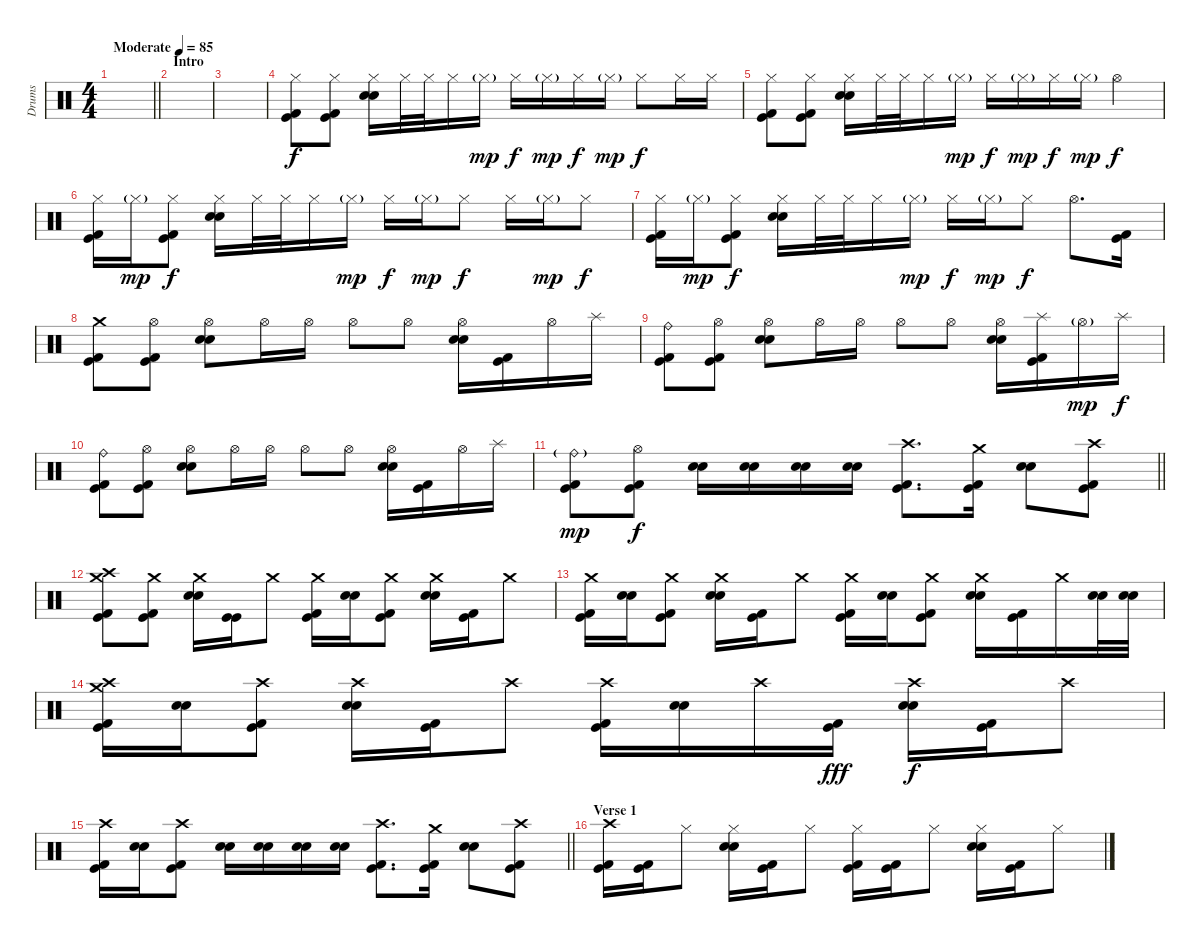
\track ("Drums" "Drums") {instrument percussion}
\staff {score}
\articulation defaults
\ts (4 4)
\tempo (85 "Moderate")
\clef neutral
\barLineRight lightlight
\ks c
|
\section ("" "Intro")
|
|
("Hi-Hat (closed)" "Kick (hit)" "Kick (hit) 2").8 ("Hi-Hat (closed)" "Kick (hit)" "Kick (hit) 2").8 ("Hi-Hat (closed)" "Electric Snare (hit)" "Snare (hit) 2").16 "Hi-Hat (closed)".32 "Hi-Hat (closed)".32 "Hi-Hat (closed)".16 "Hi-Hat (closed)"{g}.16{dy mp} "Hi-Hat (closed)".16{dy f} "Hi-Hat (closed)"{g}.16{dy mp} "Hi-Hat (closed)".16{dy f} "Hi-Hat (closed)"{g}.16{dy mp} "Hi-Hat (closed)".8{dy f} "Hi-Hat (closed)".16 "Hi-Hat (closed)".16 |
("Hi-Hat (closed)" "Kick (hit)" "Kick (hit) 2").8 ("Hi-Hat (closed)" "Kick (hit)" "Kick (hit) 2").8 ("Hi-Hat (closed)" "Electric Snare (hit)" "Snare (hit) 2").16 "Hi-Hat (closed)".32 "Hi-Hat (closed)".32 "Hi-Hat (closed)".16 "Hi-Hat (closed)"{g}.16{dy mp} "Hi-Hat (closed)".16{dy f} "Hi-Hat (closed)"{g}.16{dy mp} "Hi-Hat (closed)".16{dy f} "Hi-Hat (closed)"{g}.16{dy mp} "Hi-Hat (open)".4{dy f} |
("Hi-Hat (closed)" "Kick (hit)" "Kick (hit) 2").16 "Hi-Hat (closed)"{g}.16{dy mp} ("Hi-Hat (closed)" "Kick (hit)" "Kick (hit) 2").8{dy f} ("Hi-Hat (closed)" "Electric Snare (hit)" "Snare (hit) 2").16 "Hi-Hat (closed)".32 "Hi-Hat (closed)".32 "Hi-Hat (closed)".16 "Hi-Hat (closed)"{g}.16{dy mp} "Hi-Hat (closed)".16{dy f} "Hi-Hat (closed)"{g}.16{dy mp} "Hi-Hat (closed)".8{dy f} "Hi-Hat (closed)".16 "Hi-Hat (closed)"{g}.16{dy mp} "Hi-Hat (closed)".8{dy f} |
("Hi-Hat (closed)" "Kick (hit)" "Kick (hit) 2").16 "Hi-Hat (closed)"{g}.16{dy mp} ("Hi-Hat (closed)" "Kick (hit)" "Kick (hit) 2").8{dy f} ("Hi-Hat (closed)" "Electric Snare (hit)" "Snare (hit) 2").16 "Hi-Hat (closed)".32 "Hi-Hat (closed)".32 "Hi-Hat (closed)".16 "Hi-Hat (closed)"{g}.16{dy mp} "Hi-Hat (closed)".16{dy f} "Hi-Hat (closed)"{g}.16{dy mp} "Hi-Hat (closed)".8{dy f} "Hi-Hat (open)".8{d} ("Kick (hit)" "Kick (hit) 2").16 |
("Crash medium (hit)" "Kick (hit)" "Kick (hit) 2").8 ("Hi-Hat (open)" "Kick (hit)" "Kick (hit) 2").8 ("Hi-Hat (open)" "Electric Snare (hit)" "Snare (hit) 2").8 "Hi-Hat (open)".16 "Hi-Hat (open)".16 "Hi-Hat (open)".8 "Hi-Hat (open)".8 ("Hi-Hat (open)" "Electric Snare (hit)" "Snare (hit) 2").16 ("Kick (hit)" "Kick (hit) 2").16 "Hi-Hat (open)".16 "Splash (hit)".16 |
("Ride (bell)" "Kick (hit)" "Kick (hit) 2").8 ("Hi-Hat (open)" "Kick (hit)" "Kick (hit) 2").8 ("Hi-Hat (open)" "Electric Snare (hit)" "Snare (hit) 2").8 "Hi-Hat (open)".16 "Hi-Hat (open)".16 "Hi-Hat (open)".8 "Hi-Hat (open)".8 ("Hi-Hat (open)" "Electric Snare (hit)" "Snare (hit) 2").16 ("Splash (hit)" "Kick (hit)" "Kick (hit) 2").16 "Hi-Hat (open)"{g}.16{dy mp} "Splash (hit)".16{dy f} |
("Ride (bell)" "Kick (hit)" "Kick (hit) 2").8 ("Hi-Hat (open)" "Kick (hit)" "Kick (hit) 2").8 ("Hi-Hat (open)" "Electric Snare (hit)" "Snare (hit) 2").8 "Hi-Hat (open)".16 "Hi-Hat (open)".16 "Hi-Hat (open)".8 "Hi-Hat (open)".8 ("Hi-Hat (open)" "Electric Snare (hit)" "Snare (hit) 2").16 ("Kick (hit)" "Kick (hit) 2").16 "Hi-Hat (open)".16 "Splash (hit)".16 |
\barLineRight lightlight
("Ride (bell)"{g} "Kick (hit)" "Kick (hit) 2").8{dy mp} ("Hi-Hat (open)" "Kick (hit)" "Kick (hit) 2").8{dy f} ("Electric Snare (hit)" "Snare (hit) 2").16 ("Electric Snare (hit)" "Snare (hit) 2").16 ("Electric Snare (hit)" "Snare (hit) 2").16 ("Electric Snare (hit)" "Snare (hit) 2").16 ("Crash high (hit)" "Kick (hit)" "Kick (hit) 2").8{d} ("Crash medium (hit)" "Kick (hit)" "Kick (hit) 2").16 ("Electric Snare (hit)" "Snare (hit) 2").8 ("Crash high (hit)" "Kick (hit)" "Kick (hit) 2").8 |
\section ("" " ")
("Crash medium (hit)" "Crash high (hit)" "Kick (hit)" "Kick (hit) 2").8 ("Crash medium (hit)" "Kick (hit)" "Kick (hit) 2").8 ("Crash medium (hit)" "Electric Snare (hit)" "Snare (hit) 2").16 ("Kick (hit)" "Kick (hit)").16 "Crash medium (hit)".8 ("Crash medium (hit)" "Kick (hit)" "Kick (hit) 2").16 ("Electric Snare (hit)" "Snare (hit) 2").16 ("Crash medium (hit)" "Kick (hit)" "Kick (hit) 2").8 ("Crash medium (hit)" "Electric Snare (hit)" "Snare (hit) 2").16 ("Kick (hit)" "Kick (hit) 2").16 "Crash medium (hit)".8 |
("Crash medium (hit)" "Kick (hit)" "Kick (hit) 2").16 ("Electric Snare (hit)" "Snare (hit) 2").16 ("Crash medium (hit)" "Kick (hit)" "Kick (hit) 2").8 ("Crash medium (hit)" "Electric Snare (hit)" "Snare (hit) 2").16 ("Kick (hit)" "Kick (hit) 2").16 "Crash medium (hit)".8 ("Crash medium (hit)" "Kick (hit)" "Kick (hit) 2").16 ("Electric Snare (hit)" "Snare (hit) 2").16 ("Crash medium (hit)" "Kick (hit)" "Kick (hit) 2").8 ("Crash medium (hit)" "Electric Snare (hit)" "Snare (hit) 2").16 ("Kick (hit)" "Kick (hit) 2").16 "Crash medium (hit)".16 ("Electric Snare (hit)" "Snare (hit) 2").32 ("Electric Snare (hit)" "Snare (hit) 2").32 |
("Crash high (hit)" "Crash medium (hit)" "Kick (hit)" "Kick (hit) 2").16 ("Electric Snare (hit)" "Snare (hit) 2").16 ("Crash high (hit)" "Kick (hit)" "Kick (hit) 2").8 ("Crash high (hit)" "Electric Snare (hit)" "Snare (hit) 2").16 ("Kick (hit)" "Kick (hit) 2").16 "Crash high (hit)".8 ("Crash high (hit)" "Kick (hit)" "Kick (hit) 2").16 ("Electric Snare (hit)" "Snare (hit) 2").16 "Crash high (hit)".16 ("Kick (hit)" "Kick (hit) 2").16{dy fff} ("Crash high (hit)" "Electric Snare (hit)" "Snare (hit) 2").16{dy f} ("Kick (hit)" "Kick (hit) 2").16 "Crash high (hit)".8 |
\barLineRight lightlight
("Crash high (hit)" "Kick (hit)" "Kick (hit) 2").16 ("Electric Snare (hit)" "Snare (hit) 2").16 ("Crash high (hit)" "Kick (hit)" "Kick (hit) 2").8 ("Electric Snare (hit)" "Snare (hit) 2").16 ("Electric Snare (hit)" "Snare (hit) 2").16 ("Electric Snare (hit)" "Snare (hit) 2").16 ("Electric Snare (hit)" "Snare (hit) 2").16 ("Crash high (hit)" "Kick (hit)" "Kick (hit) 2").8{d} ("Crash medium (hit)" "Kick (hit)" "Kick (hit) 2").16 ("Electric Snare (hit)" "Snare (hit) 2").8 ("Crash high (hit)" "Kick (hit)" "Kick (hit) 2").8 |
\section ("" "Verse 1")
("Crash high (hit)" "Kick (hit)" "Kick (hit) 2").16 ("Kick (hit)" "Kick (hit) 2").16 "Hi-Hat (closed)".8 ("Hi-Hat (closed)" "Electric Snare (hit)" "Snare (hit) 2").16 ("Kick (hit)" "Kick (hit) 2").16 "Hi-Hat (closed)".8 ("Hi-Hat (closed)" "Kick (hit)" "Kick (hit) 2").16 ("Kick (hit)" "Kick (hit) 2").16 "Hi-Hat (closed)".8 ("Hi-Hat (closed)" "Electric Snare (hit)" "Snare (hit) 2").16 ("Kick (hit)" "Kick (hit) 2").16 "Hi-Hat (closed)".8
